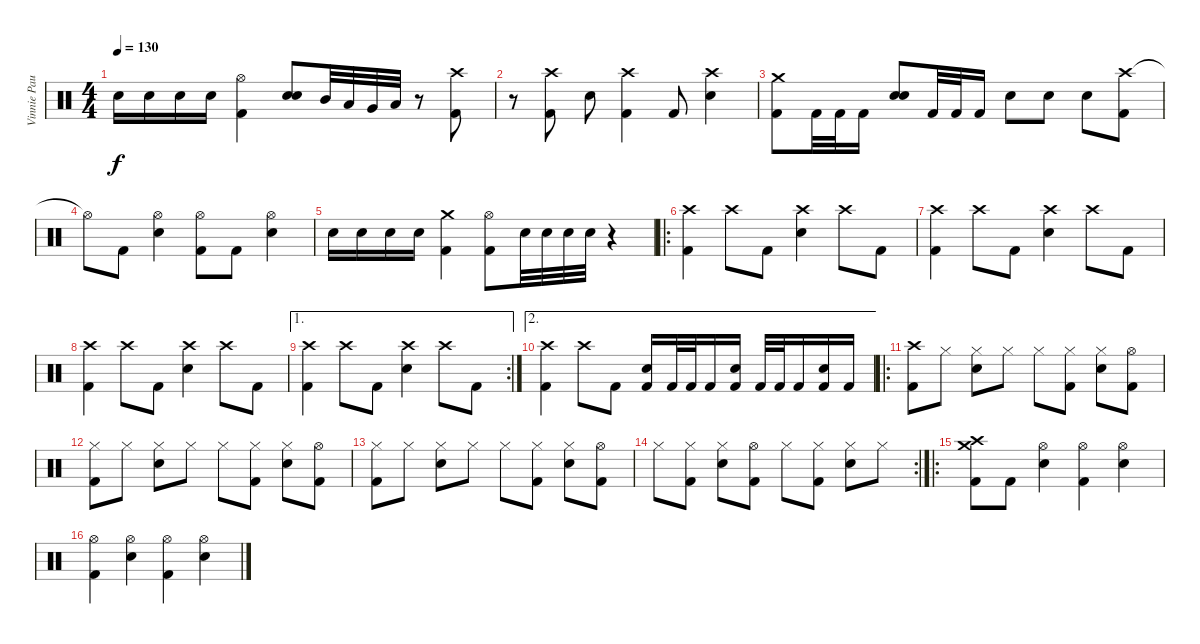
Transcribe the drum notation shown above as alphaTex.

\track ("Vinnie Paul" "Vinnie Pau") {instrument percussion}
\staff {score}
\articulation defaults
\ts (4 4)
\tempo 130
\clef neutral
\ks c "Snare (hit) 2".16{dy f} "Snare (hit) 2".16 "Snare (hit) 2".16 "Snare (hit) 2".16
("Hi-Hat (open)" "Kick (hit) 2").4 ("Snare (hit) 2" "Snare (hit) 2").8{bd 120} "Mid Tom (hit)".32 "Low Tom (hit)".32 "Very Low Tom (hit)".32 "Low Floor Tom (hit)".32 r.8 ("Crash high (hit)" "Kick (hit) 2").8 |
r.8 ("Crash high (hit)" "Kick (hit) 2").8 "Snare (hit) 2".8 ("Crash high (hit)" "Kick (hit) 2").4 "Kick (hit) 2".8 ("Crash high (hit)" "Snare (hit) 2").4 |
("Crash medium (hit)" "Kick (hit) 2").8 "Kick (hit) 2".32 "Kick (hit) 2".32 "Kick (hit) 2".16 ("Snare (hit) 2" "Snare (hit) 2").8{bd 120} "Kick (hit) 2".32 "Kick (hit) 2".32 "Kick (hit) 2".16 "Snare (hit) 2".8 "Snare (hit) 2".8 "Snare (hit) 2".8 ("Crash high (hit)" "Kick (hit) 2").8 |
"Hi-Hat (open)"{t}.8 "Kick (hit) 2".8 ("Hi-Hat (open)" "Snare (hit) 2").4 ("Hi-Hat (open)" "Kick (hit) 2").8 "Kick (hit) 2".8 ("Hi-Hat (open)" "Snare (hit) 2").4 |
"Snare (hit) 2".16 "Snare (hit) 2".16 "Snare (hit) 2".16 "Snare (hit) 2".16 ("Crash medium (hit)" "Kick (hit) 2").4 ("Hi-Hat (open)" "Kick (hit) 2").8{bd 120} "Snare (hit) 2".32 "Snare (hit) 2".32 "Snare (hit) 2".32 "Snare (hit) 2".32 r.4 |
\ro
("Crash high (hit)" "Kick (hit) 2").4 "Crash high (hit)".8 "Kick (hit) 2".8 ("Crash high (hit)" "Snare (hit) 2").4 "Crash high (hit)".8 "Kick (hit) 2".8 |
("Crash high (hit)" "Kick (hit) 2").4 "Crash high (hit)".8 "Kick (hit) 2".8 ("Crash high (hit)" "Snare (hit) 2").4 "Crash high (hit)".8 "Kick (hit) 2".8 |
("Crash high (hit)" "Kick (hit) 2").4 "Crash high (hit)".8 "Kick (hit) 2".8 ("Crash high (hit)" "Snare (hit) 2").4 "Crash high (hit)".8 "Kick (hit) 2".8 |
\ae 1
\rc 2
("Crash high (hit)" "Kick (hit) 2").4 "Crash high (hit)".8 "Kick (hit) 2".8 ("Crash high (hit)" "Snare (hit) 2").4 "Crash high (hit)".8 "Kick (hit) 2".8 |
\ae 2
("Crash high (hit)" "Kick (hit) 2").4 "Crash high (hit)".8 "Kick (hit) 2".8 ("Snare (hit) 2" "Kick (hit) 2").16 "Kick (hit) 2".32 "Kick (hit) 2".32 "Kick (hit) 2".16 ("Snare (hit) 2" "Kick (hit) 2").16 "Kick (hit) 2".32 "Kick (hit) 2".32 "Kick (hit) 2".16 ("Snare (hit) 2" "Kick (hit) 2").16 "Kick (hit) 2".16 |
\ro
("Crash high (hit)" "Kick (hit) 2").8 "Hi-Hat (closed)".8 ("Hi-Hat (closed)" "Snare (hit) 2").8 "Hi-Hat (closed)".8 "Hi-Hat (closed)".8 ("Hi-Hat (closed)" "Kick (hit) 2").8 ("Hi-Hat (closed)" "Snare (hit) 2").8 ("Hi-Hat (open)" "Kick (hit) 2").8 |
("Hi-Hat (closed)" "Kick (hit) 2").8 "Hi-Hat (closed)".8 ("Hi-Hat (closed)" "Snare (hit) 2").8 "Hi-Hat (closed)".8 "Hi-Hat (closed)".8 ("Hi-Hat (closed)" "Kick (hit) 2").8 ("Hi-Hat (closed)" "Snare (hit) 2").8 ("Hi-Hat (open)" "Kick (hit) 2").8 |
("Hi-Hat (closed)" "Kick (hit) 2").8 "Hi-Hat (closed)".8 ("Hi-Hat (closed)" "Snare (hit) 2").8 "Hi-Hat (closed)".8 "Hi-Hat (closed)".8 ("Hi-Hat (closed)" "Kick (hit) 2").8 ("Hi-Hat (closed)" "Snare (hit) 2").8 ("Hi-Hat (open)" "Kick (hit) 2").8 |
\rc 2 "Hi-Hat (closed)".8
("Hi-Hat (closed)" "Kick (hit) 2").8 ("Hi-Hat (closed)" "Snare (hit) 2").8 ("Hi-Hat (open)" "Kick (hit) 2").8 "Hi-Hat (closed)".8 ("Hi-Hat (closed)" "Kick (hit) 2").8 ("Hi-Hat (closed)" "Snare (hit) 2").8 "Hi-Hat (closed)".8 |
\ro
("Crash high (hit)" "Crash medium (hit)" "Kick (hit) 2").8 "Kick (hit) 2".8 ("Hi-Hat (open)" "Snare (hit) 2").4 ("Hi-Hat (open)" "Kick (hit) 2").4 ("Hi-Hat (open)" "Snare (hit) 2").4 |
("Hi-Hat (open)" "Kick (hit) 2").4 ("Hi-Hat (open)" "Snare (hit) 2").4 ("Hi-Hat (open)" "Kick (hit) 2").4 ("Hi-Hat (open)" "Snare (hit) 2").4
